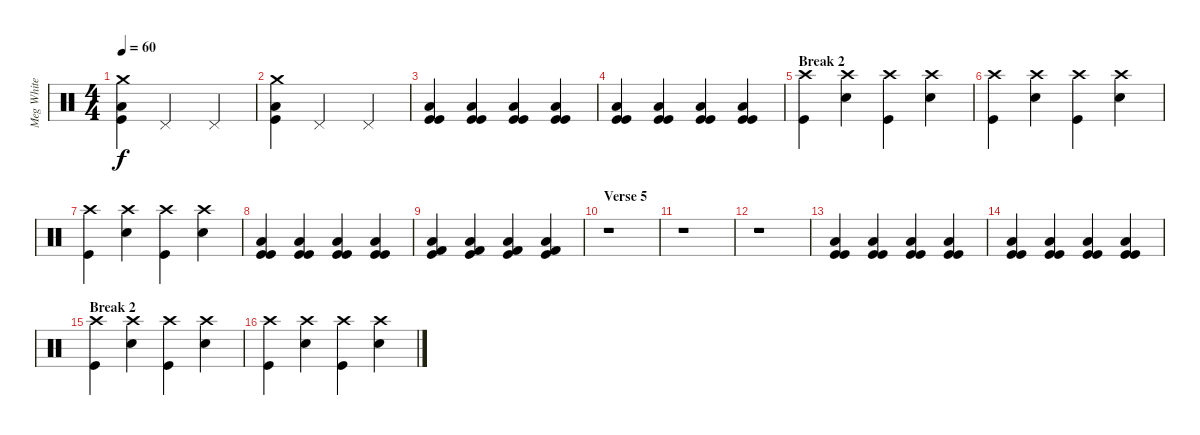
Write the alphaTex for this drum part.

\track ("Meg White (drums)" "Meg White ") {instrument percussion}
\staff {score}
\articulation defaults
\ts (4 4)
\tempo 60
\clef neutral
\ks c
("Low Floor Tom (hit)" "Kick (hit)" "Crash medium (hit)").4{dy f} "Pedal Hi-Hat (hit)".2 "Pedal Hi-Hat (hit)".4 |
("Low Floor Tom (hit)" "Kick (hit)" "Crash medium (hit)").4 "Pedal Hi-Hat (hit)".2 "Pedal Hi-Hat (hit)".4 |
("Low Floor Tom (hit)" "Kick (hit)" "Kick (hit)").4 ("Low Floor Tom (hit)" "Kick (hit)" "Kick (hit)").4 ("Low Floor Tom (hit)" "Kick (hit)" "Kick (hit)").4 ("Low Floor Tom (hit)" "Kick (hit)" "Kick (hit)").4 |
("Low Floor Tom (hit)" "Kick (hit)" "Kick (hit)").4 ("Low Floor Tom (hit)" "Kick (hit)" "Kick (hit)").4 ("Low Floor Tom (hit)" "Kick (hit)" "Kick (hit)").4 ("Low Floor Tom (hit)" "Kick (hit)" "Kick (hit)").4 |
\section ("" "Break 2")
("Kick (hit)" "Crash high (hit)").4 ("Electric Snare (hit)" "Crash high (hit)").4 ("Kick (hit)" "Crash high (hit)").4 ("Electric Snare (hit)" "Crash high (hit)").4 |
("Kick (hit)" "Crash high (hit)").4 ("Electric Snare (hit)" "Crash high (hit)").4 ("Kick (hit)" "Crash high (hit)").4 ("Electric Snare (hit)" "Crash high (hit)").4 |
("Kick (hit)" "Crash high (hit)").4 ("Electric Snare (hit)" "Crash high (hit)").4 ("Kick (hit)" "Crash high (hit)").4 ("Electric Snare (hit)" "Crash high (hit)").4 |
("Low Floor Tom (hit)" "Kick (hit)" "Kick (hit)").4 ("Low Floor Tom (hit)" "Kick (hit)" "Kick (hit)").4 ("Low Floor Tom (hit)" "Kick (hit)" "Kick (hit)").4 ("Low Floor Tom (hit)" "Kick (hit)" "Kick (hit)").4 |
("Low Floor Tom (hit)" "Kick (hit)" "Kick (hit) 2").4 ("Low Floor Tom (hit)" "Kick (hit)" "Kick (hit) 2").4 ("Low Floor Tom (hit)" "Kick (hit)" "Kick (hit) 2").4 ("Low Floor Tom (hit)" "Kick (hit)" "Kick (hit) 2").4 |
\section ("" "Verse 5")
r.1 |
r.1 |
r.1 |
\section ("" "")
("Low Floor Tom (hit)" "Kick (hit)" "Kick (hit)").4 ("Low Floor Tom (hit)" "Kick (hit)" "Kick (hit)").4 ("Low Floor Tom (hit)" "Kick (hit)" "Kick (hit)").4 ("Low Floor Tom (hit)" "Kick (hit)" "Kick (hit)").4 |
("Low Floor Tom (hit)" "Kick (hit)" "Kick (hit)").4 ("Low Floor Tom (hit)" "Kick (hit)" "Kick (hit)").4 ("Low Floor Tom (hit)" "Kick (hit)" "Kick (hit)").4 ("Low Floor Tom (hit)" "Kick (hit)" "Kick (hit)").4 |
\section ("" "Break 2")
("Kick (hit)" "Crash high (hit)").4 ("Electric Snare (hit)" "Crash high (hit)").4 ("Kick (hit)" "Crash high (hit)").4 ("Electric Snare (hit)" "Crash high (hit)").4 |
("Kick (hit)" "Crash high (hit)").4 ("Electric Snare (hit)" "Crash high (hit)").4 ("Kick (hit)" "Crash high (hit)").4 ("Electric Snare (hit)" "Crash high (hit)").4
